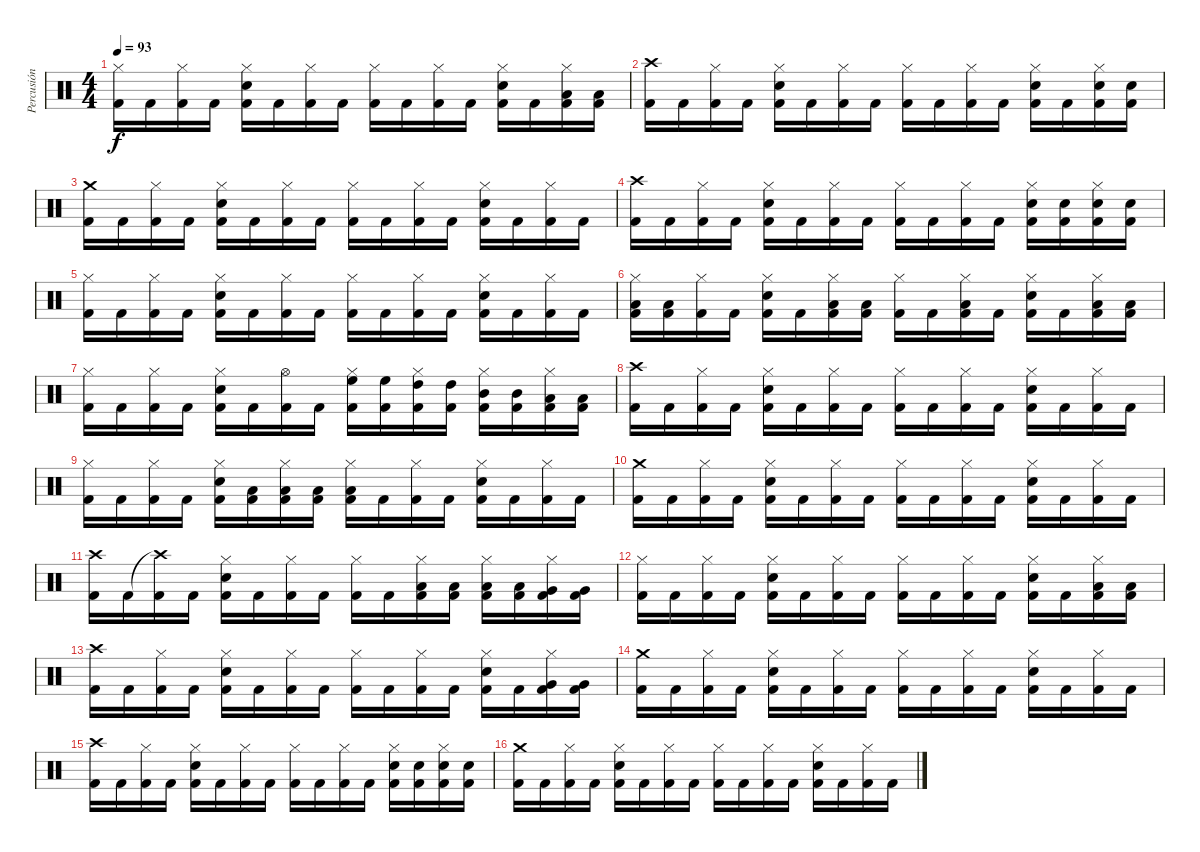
\track ("Percusión" "Percusión") {instrument percussion}
\staff {score}
\articulation defaults
\ts (4 4)
\tempo 93
\clef neutral
\ks c
("Hi-Hat (closed)" "Kick (hit) 2").16{dy f} "Kick (hit) 2".16 ("Hi-Hat (closed)" "Kick (hit) 2").16 "Kick (hit) 2".16 ("Hi-Hat (closed)" "Snare (hit) 2" "Kick (hit) 2").16 "Kick (hit) 2".16 ("Hi-Hat (closed)" "Kick (hit) 2").16 "Kick (hit) 2".16 ("Hi-Hat (closed)" "Kick (hit) 2").16 "Kick (hit) 2".16 ("Hi-Hat (closed)" "Kick (hit) 2").16 "Kick (hit) 2".16 ("Hi-Hat (closed)" "Snare (hit) 2" "Kick (hit) 2").16 "Kick (hit) 2".16 ("Hi-Hat (closed)" "Low Tom (hit)" "Kick (hit) 2").16 ("Low Tom (hit)" "Kick (hit) 2").16 |
("Crash high (hit)" "Kick (hit) 2").16 "Kick (hit) 2".16 ("Hi-Hat (closed)" "Kick (hit) 2").16 "Kick (hit) 2".16 ("Hi-Hat (closed)" "Snare (hit) 2" "Kick (hit) 2").16 "Kick (hit) 2".16 ("Hi-Hat (closed)" "Kick (hit) 2").16 "Kick (hit) 2".16 ("Hi-Hat (closed)" "Kick (hit) 2").16 "Kick (hit) 2".16 ("Hi-Hat (closed)" "Kick (hit) 2").16 "Kick (hit) 2".16 ("Hi-Hat (closed)" "Snare (hit) 2" "Kick (hit) 2").16 "Kick (hit) 2".16 ("Hi-Hat (closed)" "Electric Snare (hit)" "Kick (hit) 2").16 ("Electric Snare (hit)" "Kick (hit) 2").16 |
("Crash medium (hit)" "Kick (hit) 2").16 "Kick (hit) 2".16 ("Hi-Hat (closed)" "Kick (hit) 2").16 "Kick (hit) 2".16 ("Hi-Hat (closed)" "Snare (hit) 2" "Kick (hit) 2").16 "Kick (hit) 2".16 ("Hi-Hat (closed)" "Kick (hit) 2").16 "Kick (hit) 2".16 ("Hi-Hat (closed)" "Kick (hit) 2").16 "Kick (hit) 2".16 ("Hi-Hat (closed)" "Kick (hit) 2").16 "Kick (hit) 2".16 ("Hi-Hat (closed)" "Snare (hit) 2" "Kick (hit) 2").16 "Kick (hit) 2".16 ("Hi-Hat (closed)" "Kick (hit) 2").16 "Kick (hit) 2".16 |
("Crash high (hit)" "Kick (hit) 2").16 "Kick (hit) 2".16 ("Hi-Hat (closed)" "Kick (hit) 2").16 "Kick (hit) 2".16 ("Hi-Hat (closed)" "Snare (hit) 2" "Kick (hit) 2").16 "Kick (hit) 2".16 ("Hi-Hat (closed)" "Kick (hit) 2").16 "Kick (hit) 2".16 ("Hi-Hat (closed)" "Kick (hit) 2").16 "Kick (hit) 2".16 ("Hi-Hat (closed)" "Kick (hit) 2").16 "Kick (hit) 2".16 ("Hi-Hat (closed)" "Snare (hit) 2" "Kick (hit) 2").16 ("Snare (hit) 2" "Kick (hit) 2").16 ("Hi-Hat (closed)" "Snare (hit) 2" "Kick (hit) 2").16 ("Snare (hit) 2" "Kick (hit) 2").16 |
("Hi-Hat (closed)" "Kick (hit) 2").16 "Kick (hit) 2".16 ("Hi-Hat (closed)" "Kick (hit) 2").16 "Kick (hit) 2".16 ("Hi-Hat (closed)" "Snare (hit) 2" "Kick (hit) 2").16 "Kick (hit) 2".16 ("Hi-Hat (closed)" "Kick (hit) 2").16 "Kick (hit) 2".16 ("Hi-Hat (closed)" "Kick (hit) 2").16 "Kick (hit) 2".16 ("Hi-Hat (closed)" "Kick (hit) 2").16 "Kick (hit) 2".16 ("Hi-Hat (closed)" "Snare (hit) 2" "Kick (hit) 2").16 "Kick (hit) 2".16 ("Hi-Hat (closed)" "Kick (hit) 2").16 "Kick (hit) 2".16 |
("Hi-Hat (closed)" "Low Floor Tom (hit)" "Kick (hit) 2").16 ("Low Floor Tom (hit)" "Kick (hit) 2").16 ("Hi-Hat (closed)" "Kick (hit) 2").16 "Kick (hit) 2".16 ("Hi-Hat (closed)" "Snare (hit) 2" "Kick (hit) 2").16 "Kick (hit) 2".16 ("Hi-Hat (closed)" "Low Floor Tom (hit)" "Kick (hit) 2").16 ("Low Floor Tom (hit)" "Kick (hit) 2").16 ("Hi-Hat (closed)" "Kick (hit) 2").16 "Kick (hit) 2".16 ("Hi-Hat (closed)" "Low Floor Tom (hit)" "Kick (hit) 2").16 "Kick (hit) 2".16 ("Hi-Hat (closed)" "Snare (hit) 2" "Kick (hit) 2").16 "Kick (hit) 2".16 ("Hi-Hat (closed)" "Low Floor Tom (hit)" "Kick (hit) 2").16 ("Low Floor Tom (hit)" "Kick (hit) 2").16 |
("Hi-Hat (closed)" "Kick (hit) 2").16 "Kick (hit) 2".16 ("Hi-Hat (closed)" "Kick (hit) 2").16 "Kick (hit) 2".16 ("Hi-Hat (closed)" "Snare (hit) 2" "Kick (hit) 2").16 "Kick (hit) 2".16 ("Hi-Hat (open)" "Kick (hit) 2").16 "Kick (hit) 2".16 ("Hi-Hat (closed)" "High Floor Tom (hit)" "Kick (hit) 2").16 ("High Floor Tom (hit)" "Kick (hit) 2").16 ("Hi-Hat (closed)" "High Tom (hit)" "Kick (hit) 2").16 ("High Tom (hit)" "Kick (hit) 2").16 ("Hi-Hat (closed)" "Mid Tom (hit)" "Kick (hit) 2").16 ("Mid Tom (hit)" "Kick (hit) 2").16 ("Hi-Hat (closed)" "Low Tom (hit)" "Kick (hit) 2").16 ("Low Tom (hit)" "Kick (hit) 2").16 |
("Crash high (hit)" "Kick (hit) 2").16 "Kick (hit) 2".16 ("Hi-Hat (closed)" "Kick (hit) 2").16 "Kick (hit) 2".16 ("Hi-Hat (closed)" "Snare (hit) 2" "Kick (hit) 2").16 "Kick (hit) 2".16 ("Hi-Hat (closed)" "Kick (hit) 2").16 "Kick (hit) 2".16 ("Hi-Hat (closed)" "Kick (hit) 2").16 "Kick (hit) 2".16 ("Hi-Hat (closed)" "Kick (hit) 2").16 "Kick (hit) 2".16 ("Hi-Hat (closed)" "Snare (hit) 2" "Kick (hit) 2").16 "Kick (hit) 2".16 ("Hi-Hat (closed)" "Kick (hit) 2").16 "Kick (hit) 2".16 |
("Hi-Hat (closed)" "Kick (hit) 2").16 "Kick (hit) 2".16 ("Hi-Hat (closed)" "Kick (hit) 2").16 "Kick (hit) 2".16 ("Hi-Hat (closed)" "Snare (hit) 2" "Kick (hit) 2").16 ("Low Floor Tom (hit)" "Kick (hit) 2").16 ("Hi-Hat (closed)" "Low Floor Tom (hit)" "Kick (hit) 2").16 ("Low Floor Tom (hit)" "Kick (hit) 2").16 ("Hi-Hat (closed)" "Low Floor Tom (hit)" "Kick (hit) 2").16 "Kick (hit) 2".16 ("Hi-Hat (closed)" "Kick (hit) 2").16 "Kick (hit) 2".16 ("Hi-Hat (closed)" "Snare (hit) 2" "Kick (hit) 2").16 "Kick (hit) 2".16 ("Hi-Hat (closed)" "Kick (hit) 2").16 "Kick (hit) 2".16 |
("Crash medium (hit)" "Kick (hit) 2").16 "Kick (hit) 2".16 ("Hi-Hat (closed)" "Kick (hit) 2").16 "Kick (hit) 2".16 ("Hi-Hat (closed)" "Snare (hit) 2" "Kick (hit) 2").16 "Kick (hit) 2".16 ("Hi-Hat (closed)" "Kick (hit) 2").16 "Kick (hit) 2".16 ("Hi-Hat (closed)" "Kick (hit) 2").16 "Kick (hit) 2".16 ("Hi-Hat (closed)" "Kick (hit) 2").16 "Kick (hit) 2".16 ("Hi-Hat (closed)" "Snare (hit) 2" "Kick (hit) 2").16 "Kick (hit) 2".16 ("Hi-Hat (closed)" "Kick (hit) 2").16 "Kick (hit) 2".16 |
("Crash high (hit)" "Kick (hit) 2").16 "Kick (hit) 2".16 ("Crash high (hit)"{t} "Kick (hit) 2").16 "Kick (hit) 2".16 ("Hi-Hat (closed)" "Snare (hit) 2" "Kick (hit) 2").16 "Kick (hit) 2".16 ("Hi-Hat (closed)" "Kick (hit) 2").16 "Kick (hit) 2".16 ("Hi-Hat (closed)" "Kick (hit) 2").16 "Kick (hit) 2".16 ("Hi-Hat (closed)" "Low Floor Tom (hit)" "Kick (hit) 2").16 ("Low Floor Tom (hit)" "Kick (hit) 2").16 ("Hi-Hat (closed)" "Low Floor Tom (hit)" "Kick (hit) 2").16 ("Low Floor Tom (hit)" "Kick (hit) 2").16 ("Hi-Hat (closed)" "Very Low Tom (hit)" "Kick (hit) 2").16 ("Very Low Tom (hit)" "Kick (hit) 2").16 |
("Hi-Hat (closed)" "Kick (hit) 2").16 "Kick (hit) 2".16 ("Hi-Hat (closed)" "Kick (hit) 2").16 "Kick (hit) 2".16 ("Hi-Hat (closed)" "Snare (hit) 2" "Kick (hit) 2").16 "Kick (hit) 2".16 ("Hi-Hat (closed)" "Kick (hit) 2").16 "Kick (hit) 2".16 ("Hi-Hat (closed)" "Kick (hit) 2").16 "Kick (hit) 2".16 ("Hi-Hat (closed)" "Kick (hit) 2").16 "Kick (hit) 2".16 ("Hi-Hat (closed)" "Snare (hit) 2" "Kick (hit) 2").16 "Kick (hit) 2".16 ("Hi-Hat (closed)" "Low Floor Tom (hit)" "Kick (hit) 2").16 ("Low Floor Tom (hit)" "Kick (hit) 2").16 |
("Crash high (hit)" "Kick (hit) 2").16 "Kick (hit) 2".16 ("Hi-Hat (closed)" "Kick (hit) 2").16 "Kick (hit) 2".16 ("Hi-Hat (closed)" "Snare (hit) 2" "Kick (hit) 2").16 "Kick (hit) 2".16 ("Hi-Hat (closed)" "Kick (hit) 2").16 "Kick (hit) 2".16 ("Hi-Hat (closed)" "Kick (hit) 2").16 "Kick (hit) 2".16 ("Hi-Hat (closed)" "Kick (hit) 2").16 "Kick (hit) 2".16 ("Hi-Hat (closed)" "Snare (hit) 2" "Kick (hit) 2").16 "Kick (hit) 2".16 ("Hi-Hat (closed)" "Very Low Tom (hit)" "Kick (hit) 2").16 ("Very Low Tom (hit)" "Kick (hit) 2").16 |
("Crash medium (hit)" "Kick (hit) 2").16 "Kick (hit) 2".16 ("Hi-Hat (closed)" "Kick (hit) 2").16 "Kick (hit) 2".16 ("Hi-Hat (closed)" "Snare (hit) 2" "Kick (hit) 2").16 "Kick (hit) 2".16 ("Hi-Hat (closed)" "Kick (hit) 2").16 "Kick (hit) 2".16 ("Hi-Hat (closed)" "Kick (hit) 2").16 "Kick (hit) 2".16 ("Hi-Hat (closed)" "Kick (hit) 2").16 "Kick (hit) 2".16 ("Hi-Hat (closed)" "Snare (hit) 2" "Kick (hit) 2").16 "Kick (hit) 2".16 ("Hi-Hat (closed)" "Kick (hit) 2").16 "Kick (hit) 2".16 |
("Crash high (hit)" "Kick (hit) 2").16 "Kick (hit) 2".16 ("Hi-Hat (closed)" "Kick (hit) 2").16 "Kick (hit) 2".16 ("Hi-Hat (closed)" "Snare (hit) 2" "Kick (hit) 2").16 "Kick (hit) 2".16 ("Hi-Hat (closed)" "Kick (hit) 2").16 "Kick (hit) 2".16 ("Hi-Hat (closed)" "Kick (hit) 2").16 "Kick (hit) 2".16 ("Hi-Hat (closed)" "Kick (hit) 2").16 "Kick (hit) 2".16 ("Hi-Hat (closed)" "Snare (hit) 2" "Kick (hit) 2").16 ("Snare (hit) 2" "Kick (hit) 2").16 ("Hi-Hat (closed)" "Snare (hit) 2" "Kick (hit) 2").16 ("Snare (hit) 2" "Kick (hit) 2").16 |
("Crash medium (hit)" "Kick (hit) 2").16 "Kick (hit) 2".16 ("Hi-Hat (closed)" "Kick (hit) 2").16 "Kick (hit) 2".16 ("Hi-Hat (closed)" "Snare (hit) 2" "Kick (hit) 2").16 "Kick (hit) 2".16 ("Hi-Hat (closed)" "Kick (hit) 2").16 "Kick (hit) 2".16 ("Hi-Hat (closed)" "Kick (hit) 2").16 "Kick (hit) 2".16 ("Hi-Hat (closed)" "Kick (hit) 2").16 "Kick (hit) 2".16 ("Hi-Hat (closed)" "Snare (hit) 2" "Kick (hit) 2").16 "Kick (hit) 2".16 ("Hi-Hat (closed)" "Kick (hit) 2").16 "Kick (hit) 2".16
